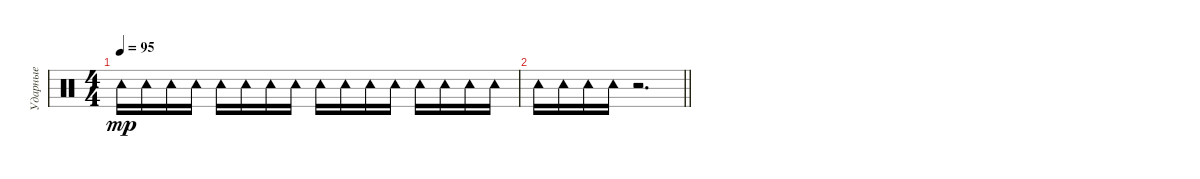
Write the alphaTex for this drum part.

\track ("Ударные" "Ударные") {instrument percussion}
\staff {score}
\articulation defaults
\ts (4 4)
\tempo 95
\clef neutral
\ks c "Tambourine (hit)".16{dy mp} "Tambourine (hit)".16 "Tambourine (hit)".16 "Tambourine (hit)".16 "Tambourine (hit)".16 "Tambourine (hit)".16 "Tambourine (hit)".16 "Tambourine (hit)".16 "Tambourine (hit)".16 "Tambourine (hit)".16 "Tambourine (hit)".16 "Tambourine (hit)".16 "Tambourine (hit)".16 "Tambourine (hit)".16 "Tambourine (hit)".16 "Tambourine (hit)".16
|
\barLineRight lightlight "Tambourine (hit)".16 "Tambourine (hit)".16 "Tambourine (hit)".16 "Tambourine (hit)".16
r.2{d}
